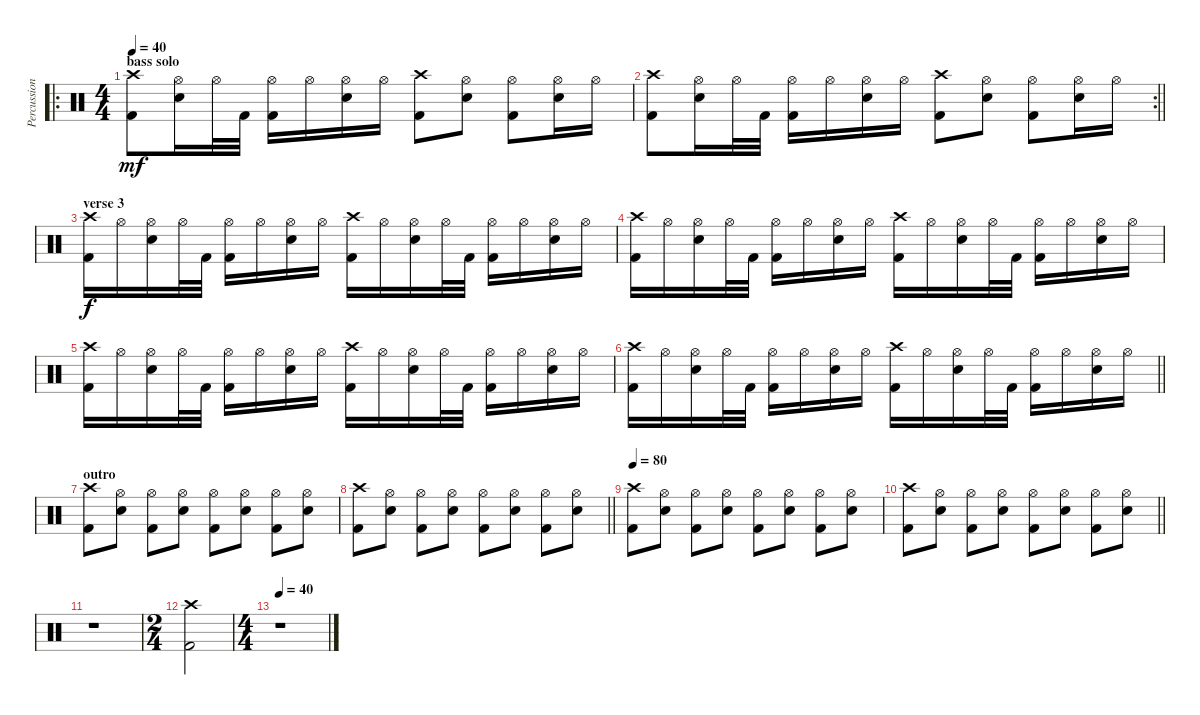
\track ("Percussion" "Percussion") {instrument percussion}
\staff {score}
\articulation defaults
\ro
\ts (4 4)
\section ("" "bass solo")
\tempo 40
\clef neutral
\ks c
("Crash high (hit)" "Kick (hit) 2").8{dy mf} ("Hi-Hat (open)" "Snare (hit) 2").16 "Hi-Hat (open)".32 "Kick (hit) 2".32 ("Hi-Hat (open)" "Kick (hit) 2").16 "Hi-Hat (open)".16 ("Hi-Hat (open)" "Snare (hit) 2").16 "Hi-Hat (open)".16 ("Crash high (hit)" "Kick (hit) 2").8 ("Hi-Hat (open)" "Snare (hit) 2").8 ("Hi-Hat (open)" "Kick (hit) 2").8 ("Hi-Hat (open)" "Snare (hit) 2").16 "Hi-Hat (open)".16 |
\rc 2
\barLineRight lightlight
("Crash high (hit)" "Kick (hit) 2").8 ("Hi-Hat (open)" "Snare (hit) 2").16 "Hi-Hat (open)".32 "Kick (hit) 2".32 ("Hi-Hat (open)" "Kick (hit) 2").16 "Hi-Hat (open)".16 ("Hi-Hat (open)" "Snare (hit) 2").16 "Hi-Hat (open)".16 ("Crash high (hit)" "Kick (hit) 2").8 ("Hi-Hat (open)" "Snare (hit) 2").8 ("Hi-Hat (open)" "Kick (hit) 2").8 ("Hi-Hat (open)" "Snare (hit) 2").16 "Hi-Hat (open)".16 |
\section ("" "verse 3")
("Crash high (hit)" "Kick (hit) 2").16{dy f} "Hi-Hat (open)".16 ("Hi-Hat (open)" "Snare (hit) 2").16 "Hi-Hat (open)".32 "Kick (hit) 2".32 ("Hi-Hat (open)" "Kick (hit) 2").16 "Hi-Hat (open)".16 ("Hi-Hat (open)" "Snare (hit) 2").16 "Hi-Hat (open)".16 ("Crash high (hit)" "Kick (hit) 2").16 "Hi-Hat (open)".16 ("Hi-Hat (open)" "Snare (hit) 2").16 "Hi-Hat (open)".32 "Kick (hit) 2".32 ("Hi-Hat (open)" "Kick (hit) 2").16 "Hi-Hat (open)".16 ("Hi-Hat (open)" "Snare (hit) 2").16 "Hi-Hat (open)".16 |
("Crash high (hit)" "Kick (hit) 2").16 "Hi-Hat (open)".16 ("Hi-Hat (open)" "Snare (hit) 2").16 "Hi-Hat (open)".32 "Kick (hit) 2".32 ("Hi-Hat (open)" "Kick (hit) 2").16 "Hi-Hat (open)".16 ("Hi-Hat (open)" "Snare (hit) 2").16 "Hi-Hat (open)".16 ("Crash high (hit)" "Kick (hit) 2").16 "Hi-Hat (open)".16 ("Hi-Hat (open)" "Snare (hit) 2").16 "Hi-Hat (open)".32 "Kick (hit) 2".32 ("Hi-Hat (open)" "Kick (hit) 2").16 "Hi-Hat (open)".16 ("Hi-Hat (open)" "Snare (hit) 2").16 "Hi-Hat (open)".16 |
("Crash high (hit)" "Kick (hit) 2").16 "Hi-Hat (open)".16 ("Hi-Hat (open)" "Snare (hit) 2").16 "Hi-Hat (open)".32 "Kick (hit) 2".32 ("Hi-Hat (open)" "Kick (hit) 2").16 "Hi-Hat (open)".16 ("Hi-Hat (open)" "Snare (hit) 2").16 "Hi-Hat (open)".16 ("Crash high (hit)" "Kick (hit) 2").16 "Hi-Hat (open)".16 ("Hi-Hat (open)" "Snare (hit) 2").16 "Hi-Hat (open)".32 "Kick (hit) 2".32 ("Hi-Hat (open)" "Kick (hit) 2").16 "Hi-Hat (open)".16 ("Hi-Hat (open)" "Snare (hit) 2").16 "Hi-Hat (open)".16 |
\barLineRight lightlight
("Crash high (hit)" "Kick (hit) 2").16 "Hi-Hat (open)".16 ("Hi-Hat (open)" "Snare (hit) 2").16 "Hi-Hat (open)".32 "Kick (hit) 2".32 ("Hi-Hat (open)" "Kick (hit) 2").16 "Hi-Hat (open)".16 ("Hi-Hat (open)" "Snare (hit) 2").16 "Hi-Hat (open)".16 ("Crash high (hit)" "Kick (hit) 2").16 "Hi-Hat (open)".16 ("Hi-Hat (open)" "Snare (hit) 2").16 "Hi-Hat (open)".32 "Kick (hit) 2".32 ("Hi-Hat (open)" "Kick (hit) 2").16 "Hi-Hat (open)".16 ("Hi-Hat (open)" "Snare (hit) 2").16 "Hi-Hat (open)".16 |
\section ("" "outro")
("Crash high (hit)" "Kick (hit) 2").8{volume 8} ("Hi-Hat (open)" "Snare (hit) 2").8 ("Hi-Hat (open)" "Kick (hit) 2").8 ("Hi-Hat (open)" "Snare (hit) 2").8 ("Hi-Hat (open)" "Kick (hit) 2").8 ("Hi-Hat (open)" "Snare (hit) 2").8 ("Hi-Hat (open)" "Kick (hit) 2").8 ("Hi-Hat (open)" "Snare (hit) 2").8 |
\barLineRight lightlight
("Crash high (hit)" "Kick (hit) 2").8 ("Hi-Hat (open)" "Snare (hit) 2").8 ("Hi-Hat (open)" "Kick (hit) 2").8 ("Hi-Hat (open)" "Snare (hit) 2").8 ("Hi-Hat (open)" "Kick (hit) 2").8 ("Hi-Hat (open)" "Snare (hit) 2").8 ("Hi-Hat (open)" "Kick (hit) 2").8 ("Hi-Hat (open)" "Snare (hit) 2").8 |
\tempo 80
("Crash high (hit)" "Kick (hit) 2").8{volume 0} ("Hi-Hat (open)" "Snare (hit) 2").8 ("Hi-Hat (open)" "Kick (hit) 2").8 ("Hi-Hat (open)" "Snare (hit) 2").8 ("Hi-Hat (open)" "Kick (hit) 2").8 ("Hi-Hat (open)" "Snare (hit) 2").8 ("Hi-Hat (open)" "Kick (hit) 2").8 ("Hi-Hat (open)" "Snare (hit) 2").8 |
\barLineRight lightlight
("Crash high (hit)" "Kick (hit) 2").8 ("Hi-Hat (open)" "Snare (hit) 2").8 ("Hi-Hat (open)" "Kick (hit) 2").8 ("Hi-Hat (open)" "Snare (hit) 2").8 ("Hi-Hat (open)" "Kick (hit) 2").8 ("Hi-Hat (open)" "Snare (hit) 2").8 ("Hi-Hat (open)" "Kick (hit) 2").8 ("Hi-Hat (open)" "Snare (hit) 2").8 |
r.1 |
\ts (2 4)
("Crash high (hit)" "Kick (hit) 2").2 |
\ts (4 4)
\tempo 40
r.1
